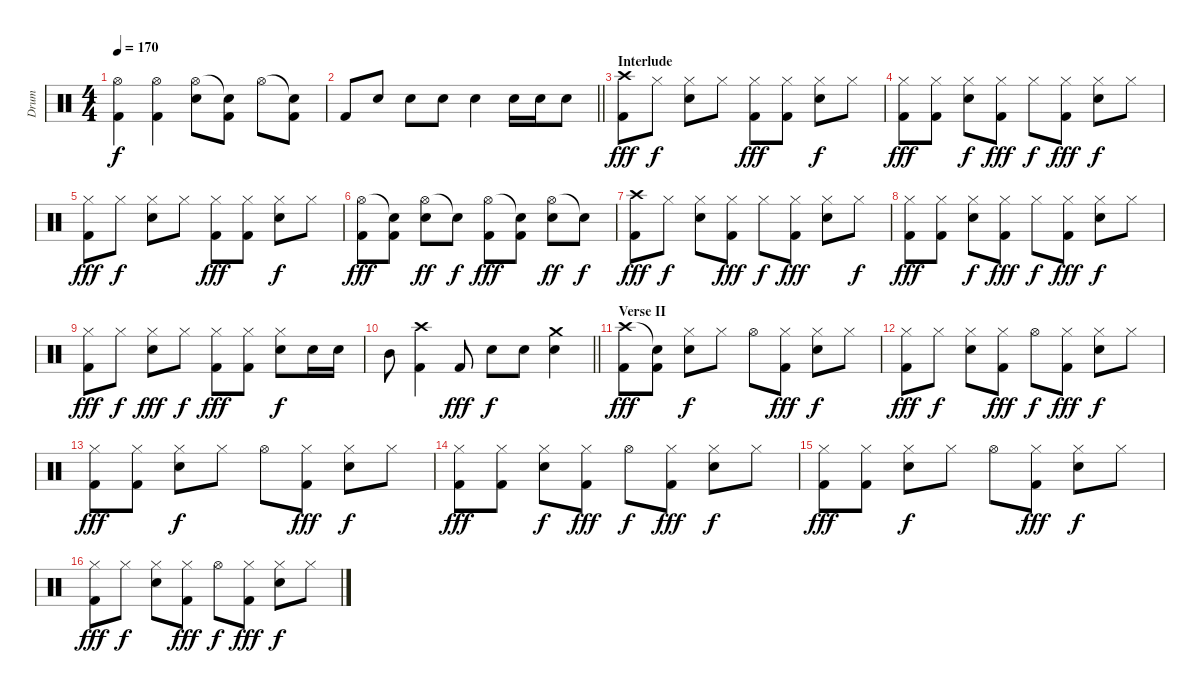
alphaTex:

\track ("Drum" "Drum") {instrument percussion}
\staff {score}
\articulation defaults
\ts (4 4)
\tempo 170
\clef neutral
\ks c
("Hi-Hat (open)" "Kick (hit) 2").4{dy f} ("Hi-Hat (open)" "Kick (hit) 2").4 ("Hi-Hat (open)" "Snare (hit) 2").8 ("Snare (hit)"{t} "Kick (hit) 2").8 "Hi-Hat (open)".8 ("Snare (hit)"{t} "Kick (hit) 2").8 |
\barLineRight lightlight "Kick (hit) 2".8 "Snare (hit) 2".8 "Snare (hit) 2".8 "Snare (hit) 2".8 "Snare (hit) 2".4 "Snare (hit) 2".16 "Snare (hit) 2".16 "Snare (hit) 2".8
|
\section ("" "Interlude")
("Crash high (hit)" "Kick (hit) 2").8{dy fff} "Hi-Hat (closed)".8{dy f} ("Hi-Hat (closed)" "Snare (hit) 2").8 "Hi-Hat (closed)".8 ("Hi-Hat (closed)" "Kick (hit) 2").8{dy fff} ("Hi-Hat (closed)" "Kick (hit) 2").8 ("Hi-Hat (closed)" "Snare (hit) 2").8{dy f} "Hi-Hat (closed)".8 |
("Hi-Hat (closed)" "Kick (hit) 2").8{dy fff} ("Hi-Hat (closed)" "Kick (hit) 2").8 ("Hi-Hat (closed)" "Snare (hit) 2").8{dy f} ("Hi-Hat (closed)" "Kick (hit) 2").8{dy fff} "Hi-Hat (closed)".8{dy f} ("Hi-Hat (closed)" "Kick (hit) 2").8{dy fff} ("Hi-Hat (closed)" "Snare (hit) 2").8{dy f} "Hi-Hat (closed)".8 |
("Hi-Hat (closed)" "Kick (hit) 2").8{dy fff} "Hi-Hat (closed)".8{dy f} ("Hi-Hat (closed)" "Snare (hit) 2").8 "Hi-Hat (closed)".8 ("Hi-Hat (closed)" "Kick (hit) 2").8{dy fff} ("Hi-Hat (closed)" "Kick (hit) 2").8 ("Hi-Hat (closed)" "Snare (hit) 2").8{dy f} "Hi-Hat (closed)".8 |
("Hi-Hat (open)" "Kick (hit) 2").8{dy fff} ("Snare (hit)"{t} "Kick (hit) 2").8 ("Hi-Hat (open)" "Snare (hit) 2").8{dy ff} "Snare (hit)"{t}.8{dy f} ("Hi-Hat (open)" "Kick (hit) 2").8{dy fff} ("Snare (hit)"{t} "Kick (hit) 2").8 ("Hi-Hat (open)" "Snare (hit) 2").8{dy ff} "Snare (hit)"{t}.8{dy f} |
("Crash high (hit)" "Kick (hit) 2").8{dy fff} "Hi-Hat (closed)".8{dy f} ("Hi-Hat (closed)" "Snare (hit) 2").8 ("Hi-Hat (closed)" "Kick (hit) 2").8{dy fff} "Hi-Hat (closed)".8{dy f} ("Hi-Hat (closed)" "Kick (hit) 2").8{dy fff} ("Hi-Hat (closed)" "Snare (hit) 2").8 "Hi-Hat (closed)".8{dy f} |
("Hi-Hat (closed)" "Kick (hit) 2").8{dy fff} ("Hi-Hat (closed)" "Kick (hit) 2").8 ("Hi-Hat (closed)" "Snare (hit) 2").8{dy f} ("Hi-Hat (closed)" "Kick (hit) 2").8{dy fff} "Hi-Hat (closed)".8{dy f} ("Hi-Hat (closed)" "Kick (hit) 2").8{dy fff} ("Hi-Hat (closed)" "Snare (hit) 2").8{dy f} "Hi-Hat (closed)".8 |
("Hi-Hat (closed)" "Kick (hit) 2").8{dy fff} "Hi-Hat (closed)".8{dy f} ("Hi-Hat (closed)" "Snare (hit) 2").8{dy fff} "Hi-Hat (closed)".8{dy f} ("Hi-Hat (closed)" "Kick (hit) 2").8{dy fff} ("Hi-Hat (closed)" "Kick (hit) 2").8 ("Hi-Hat (closed)" "Snare (hit) 2").8{dy f} "Snare (hit) 2".16 "Snare (hit) 2".16 |
\barLineRight lightlight "Mid Tom (hit)".8
("Crash high (hit)" "Kick (hit) 2").4 "Kick (hit) 2".8{dy fff} "Snare (hit) 2".8{dy f} "Snare (hit) 2".8 ("Crash medium (hit)" "Snare (hit) 2").4 |
\section ("" "Verse II")
("Crash high (hit)" "Kick (hit) 2").8{dy fff} ("Snare (hit)"{t} "Kick (hit) 2").8 ("Hi-Hat (closed)" "Snare (hit) 2").8{dy f} "Hi-Hat (closed)".8 "Hi-Hat (open)".8 ("Hi-Hat (closed)" "Kick (hit) 2").8{dy fff} ("Hi-Hat (closed)" "Snare (hit) 2").8{dy f} "Hi-Hat (closed)".8 |
("Hi-Hat (closed)" "Kick (hit) 2").8{dy fff} "Hi-Hat (closed)".8{dy f} ("Hi-Hat (closed)" "Snare (hit) 2").8 ("Hi-Hat (closed)" "Kick (hit) 2").8{dy fff} "Hi-Hat (open)".8{dy f} ("Hi-Hat (closed)" "Kick (hit) 2").8{dy fff} ("Hi-Hat (closed)" "Snare (hit) 2").8{dy f} "Hi-Hat (closed)".8 |
("Hi-Hat (closed)" "Kick (hit) 2").8{dy fff} ("Hi-Hat (closed)" "Kick (hit) 2").8 ("Hi-Hat (closed)" "Snare (hit) 2").8{dy f} "Hi-Hat (closed)".8 "Hi-Hat (open)".8 ("Hi-Hat (closed)" "Kick (hit) 2").8{dy fff} ("Hi-Hat (closed)" "Snare (hit) 2").8{dy f} "Hi-Hat (closed)".8 |
("Hi-Hat (closed)" "Kick (hit) 2").8{dy fff} ("Hi-Hat (closed)" "Kick (hit) 2").8 ("Hi-Hat (closed)" "Snare (hit) 2").8{dy f} ("Hi-Hat (closed)" "Kick (hit) 2").8{dy fff} "Hi-Hat (open)".8{dy f} ("Hi-Hat (closed)" "Kick (hit) 2").8{dy fff} ("Hi-Hat (closed)" "Snare (hit) 2").8{dy f} "Hi-Hat (closed)".8 |
("Hi-Hat (closed)" "Kick (hit) 2").8{dy fff} ("Hi-Hat (closed)" "Kick (hit) 2").8 ("Hi-Hat (closed)" "Snare (hit) 2").8{dy f} "Hi-Hat (closed)".8 "Hi-Hat (open)".8 ("Hi-Hat (closed)" "Kick (hit) 2").8{dy fff} ("Hi-Hat (closed)" "Snare (hit) 2").8{dy f} "Hi-Hat (closed)".8 |
("Hi-Hat (closed)" "Kick (hit) 2").8{dy fff} "Hi-Hat (closed)".8{dy f} ("Hi-Hat (closed)" "Snare (hit) 2").8 ("Hi-Hat (closed)" "Kick (hit) 2").8{dy fff} "Hi-Hat (open)".8{dy f} ("Hi-Hat (closed)" "Kick (hit) 2").8{dy fff} ("Hi-Hat (closed)" "Snare (hit) 2").8{dy f} "Hi-Hat (closed)".8
